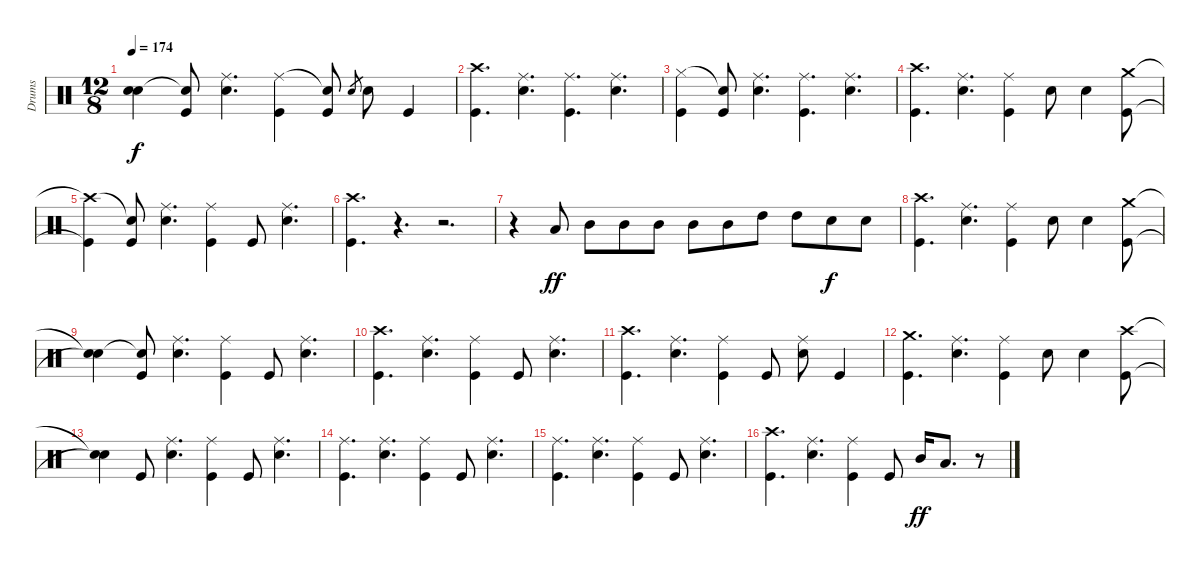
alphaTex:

\track ("Drums" "Drums") {instrument percussion}
\staff {score}
\articulation defaults
\ts (12 8)
\tempo 174
\clef neutral
\ks c
("Snare (hit)"{t} "Snare (hit)"{t}).4{dy f} ("Snare (hit)"{t} "Kick (hit)").8 ("Ride (middle)" "Snare (hit) 2").4{d} ("Ride (middle)" "Kick (hit)").4 ("Snare (hit)"{t} "Kick (hit)").8 "Snare (hit) 2".8{gr} "Snare (hit) 2".8 "Kick (hit)".4 |
("Crash high (hit)" "Kick (hit)").4{d} ("Ride (middle)" "Snare (hit) 2").4{d} ("Ride (middle)" "Kick (hit)").4{d} ("Ride (middle)" "Snare (hit) 2").4{d} |
("Hi-Hat (closed)" "Kick (hit)").4 ("Snare (hit)"{t} "Kick (hit)").8 ("Ride (middle)" "Snare (hit) 2").4{d} ("Ride (middle)" "Kick (hit)").4{d} ("Ride (middle)" "Snare (hit) 2").4{d} |
("Crash high (hit)" "Kick (hit)").4{d} ("Ride (middle)" "Snare (hit) 2").4{d} ("Ride (middle)" "Kick (hit)").4 "Snare (hit) 2".8 "Snare (hit) 2".4 ("Crash medium (hit)" "Kick (hit)").8 |
("Crash high (hit)"{t} "Kick (hit)"{t}).4 ("Snare (hit)"{t} "Kick (hit)").8 ("Ride (middle)" "Snare (hit) 2").4{d} ("Ride (middle)" "Kick (hit)").4 "Kick (hit)".8 ("Ride (middle)" "Snare (hit) 2").4{d} |
("Crash high (hit)" "Kick (hit)").4{d} r.4{d} r.2{d} |
r.4 "Low Tom (hit)".8{dy ff} "Mid Tom (hit)".8 "Mid Tom (hit)".8 "Mid Tom (hit)".8 "Mid Tom (hit)".8 "Mid Tom (hit)".8 "High Tom (hit)".8 "High Tom (hit)".8 "Snare (hit) 2".8{dy f} "Snare (hit) 2".8 |
("Crash high (hit)" "Kick (hit)").4{d} ("Ride (middle)" "Snare (hit) 2").4{d} ("Ride (middle)" "Kick (hit)").4 "Snare (hit) 2".8 "Snare (hit) 2".4 ("Crash medium (hit)" "Kick (hit)").8 |
("Snare (hit)"{t} "Snare (hit)"{t}).4 ("Snare (hit)"{t} "Kick (hit)").8 ("Ride (middle)" "Snare (hit) 2").4{d} ("Ride (middle)" "Kick (hit)").4 "Kick (hit)".8 ("Ride (middle)" "Snare (hit) 2").4{d} |
("Crash high (hit)" "Kick (hit)").4{d} ("Ride (middle)" "Snare (hit) 2").4{d} ("Ride (middle)" "Kick (hit)").4 "Kick (hit)".8 ("Ride (middle)" "Snare (hit) 2").4{d} |
("Crash high (hit)" "Kick (hit)").4{d} ("Ride (middle)" "Snare (hit) 2").4{d} ("Ride (middle)" "Kick (hit)").4 "Kick (hit)".8 ("Ride (middle)" "Snare (hit) 2").8 "Kick (hit)".4 |
("Crash medium (hit)" "Kick (hit)").4{d} ("Ride (middle)" "Snare (hit) 2").4{d} ("Ride (middle)" "Kick (hit)").4 "Snare (hit) 2".8 "Snare (hit) 2".4 ("Crash high (hit)" "Kick (hit)").8 |
("Snare (hit)"{t} "Snare (hit)"{t}).4 "Kick (hit)".8 ("Ride (middle)" "Snare (hit) 2").4{d} ("Ride (middle)" "Kick (hit)").4 "Kick (hit)".8 ("Ride (middle)" "Snare (hit) 2").4{d} |
("Ride (middle)" "Kick (hit)").4{d} ("Ride (middle)" "Snare (hit) 2").4{d} ("Ride (middle)" "Kick (hit)").4 "Kick (hit)".8 ("Ride (middle)" "Snare (hit) 2").4{d} |
("Ride (middle)" "Kick (hit)").4{d} ("Ride (middle)" "Snare (hit) 2").4{d} ("Ride (middle)" "Kick (hit)").4 "Kick (hit)".8 ("Ride (middle)" "Snare (hit) 2").4{d} |
("Crash high (hit)" "Kick (hit)").4{d} ("Ride (middle)" "Snare (hit) 2").4{d} ("Ride (middle)" "Kick (hit)").4 "Kick (hit)".8 "Mid Tom (hit)".16{dy ff} "Low Tom (hit)".8{d} r.8
